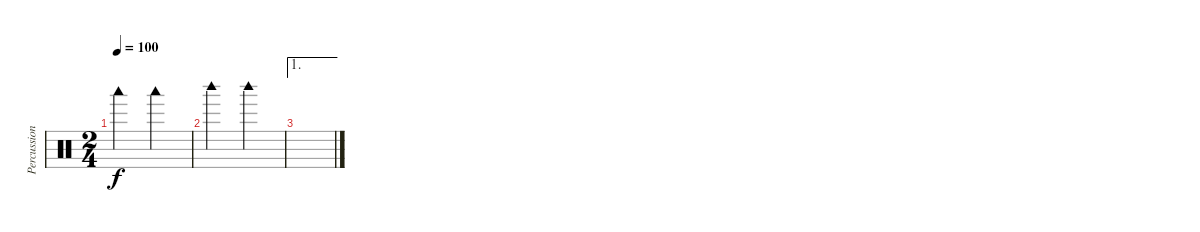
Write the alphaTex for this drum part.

\track ("Percussion" "Percussion") {instrument percussion}
\staff {score}
\articulation defaults
\ts (2 4)
\tempo 100
\clef neutral
\ks c "Woodblock low (hit)".4{dy f} "Woodblock low (hit)".4
|
"Woodblock high (hit)".4 "Woodblock high (hit)".4 |
\ae 1
